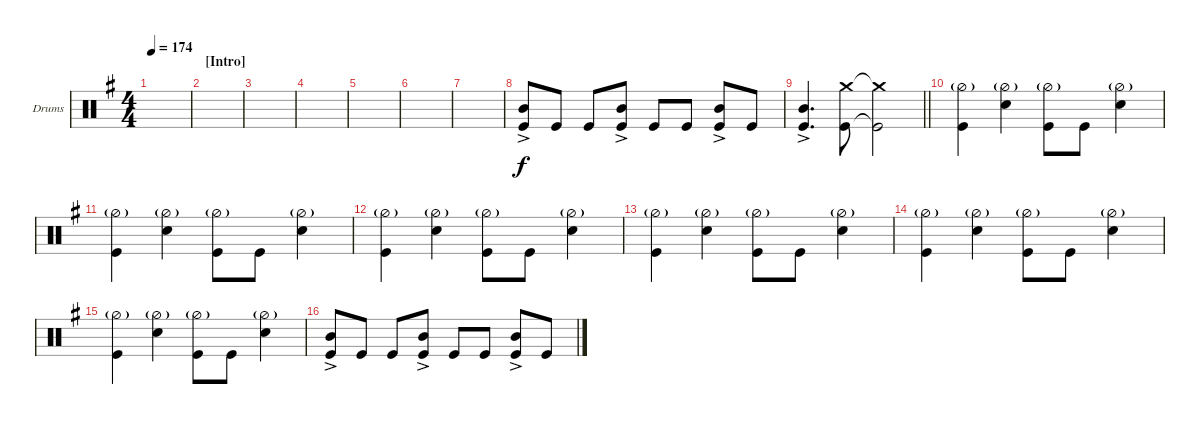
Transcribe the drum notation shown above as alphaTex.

\bracketExtendMode groupsimilarinstruments
\firstSystemTrackNameOrientation horizontal
\otherSystemsTrackNameOrientation horizontal
\track ("Drumkit" "Drums") {instrument percussion}
\staff {score}
\articulation defaults
\ts (4 4)
\tempo 174
\clef neutral
\scale
0.514894
\ks eminor
|
\section ("" "[Intro]")
\scale
0.242553 |
\scale
0.242553 |
\scale
0.333333 |
\scale
0.333333 |
\scale
0.333333 |
\scale
0.333333 |
\scale
0.333333 ("Kick (hit)" "Mid Tom (hit)"{ac}).8 "Kick (hit)".8 "Kick (hit)".8 ("Kick (hit)" "Mid Tom (hit)"{ac}).8 "Kick (hit)".8 "Kick (hit)".8 ("Kick (hit)" "Mid Tom (hit)"{ac}).8 "Kick (hit)".8 |
\scale
0.333333
\barLineRight lightlight
("Kick (hit)" "Mid Tom (hit)"{ac}).4{d} ("Kick (hit)" "Crash medium (hit)").8 ("Kick (hit)"{t} "Crash medium (hit)"{t}).2 |
\scale
0.333333 ("Kick (hit)" "Hi-Hat (half)"{g}).4 ("Snare (hit) 2" "Hi-Hat (half)"{g}).4 ("Kick (hit)" "Hi-Hat (half)"{g}).8 "Kick (hit)".8 ("Snare (hit) 2" "Hi-Hat (half)"{g}).4 |
\scale
0.333333 ("Kick (hit)" "Hi-Hat (half)"{g}).4 ("Snare (hit) 2" "Hi-Hat (half)"{g}).4 ("Kick (hit)" "Hi-Hat (half)"{g}).8 "Kick (hit)".8 ("Snare (hit) 2" "Hi-Hat (half)"{g}).4 |
\scale
0.333333 ("Kick (hit)" "Hi-Hat (half)"{g}).4 ("Snare (hit) 2" "Hi-Hat (half)"{g}).4 ("Kick (hit)" "Hi-Hat (half)"{g}).8 "Kick (hit)".8 ("Snare (hit) 2" "Hi-Hat (half)"{g}).4 |
\scale
0.333333 ("Kick (hit)" "Hi-Hat (half)"{g}).4 ("Snare (hit) 2" "Hi-Hat (half)"{g}).4 ("Kick (hit)" "Hi-Hat (half)"{g}).8 "Kick (hit)".8 ("Snare (hit) 2" "Hi-Hat (half)"{g}).4 |
\scale
0.333333 ("Kick (hit)" "Hi-Hat (half)"{g}).4 ("Snare (hit) 2" "Hi-Hat (half)"{g}).4 ("Kick (hit)" "Hi-Hat (half)"{g}).8 "Kick (hit)".8 ("Snare (hit) 2" "Hi-Hat (half)"{g}).4 |
\scale
0.333333 ("Kick (hit)" "Hi-Hat (half)"{g}).4 ("Snare (hit) 2" "Hi-Hat (half)"{g}).4 ("Kick (hit)" "Hi-Hat (half)"{g}).8 "Kick (hit)".8 ("Snare (hit) 2" "Hi-Hat (half)"{g}).4 |
\scale
0.333333 ("Kick (hit)" "Mid Tom (hit)"{ac}).8 "Kick (hit)".8 "Kick (hit)".8 ("Kick (hit)" "Mid Tom (hit)"{ac}).8 "Kick (hit)".8 "Kick (hit)".8 ("Kick (hit)" "Mid Tom (hit)"{ac}).8 "Kick (hit)".8
